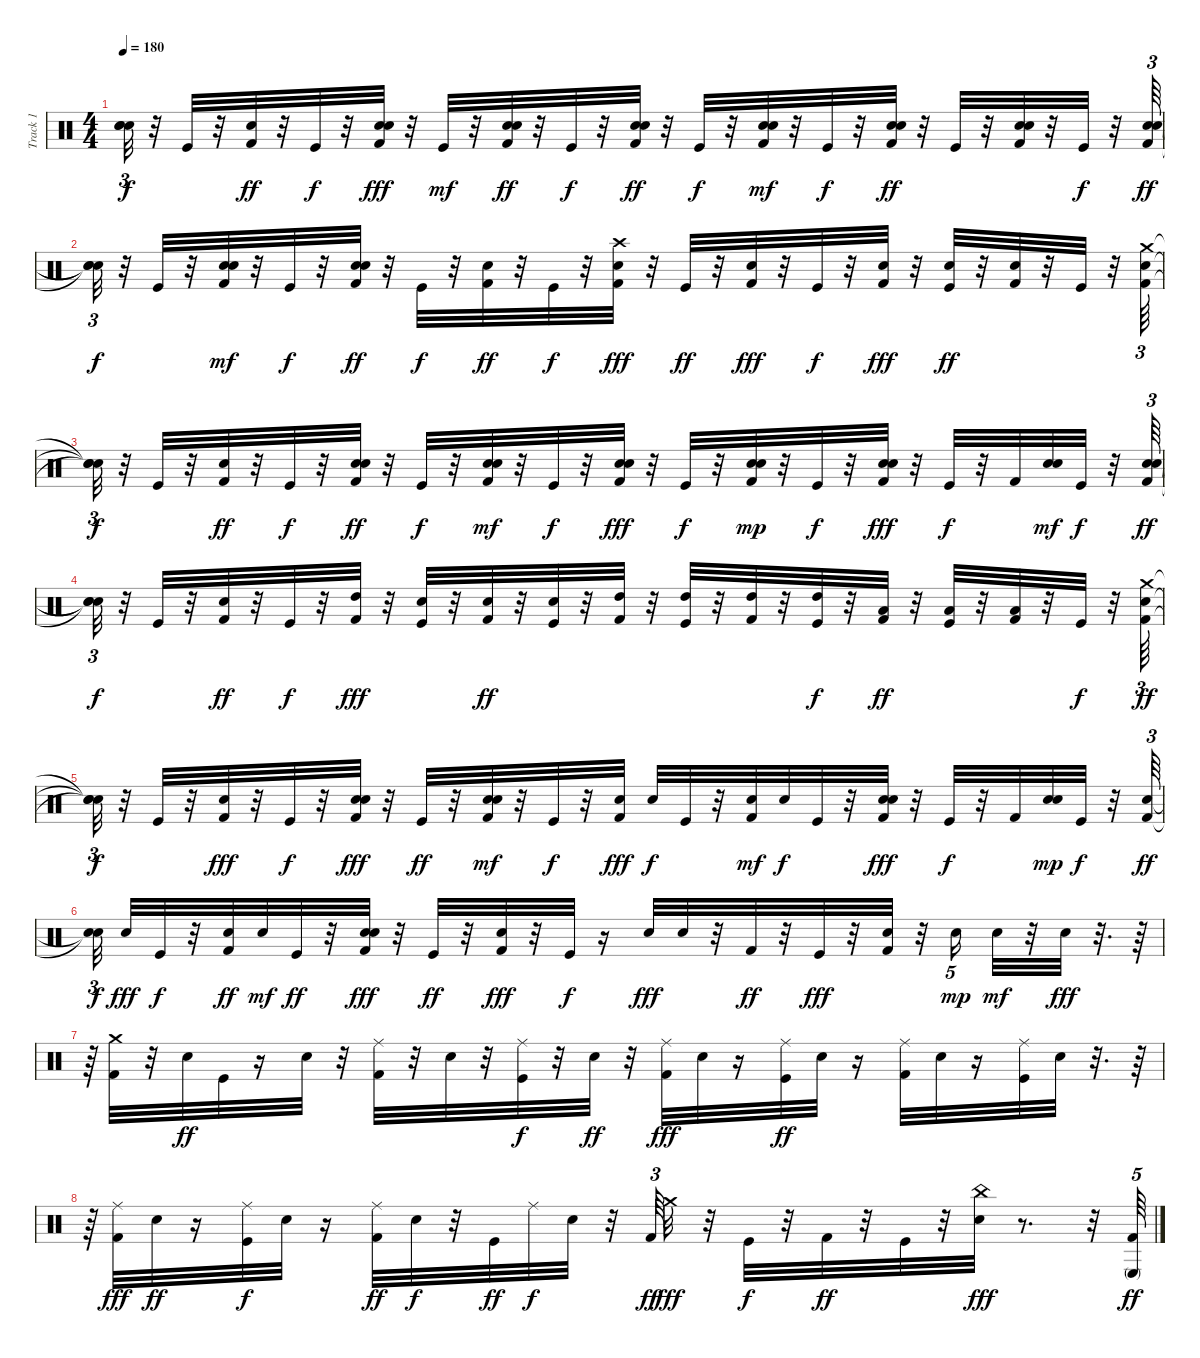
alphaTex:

\track ("Track 1" "Track 1") {mute instrument percussion}
\staff {score}
\articulation defaults
\ts (4 4)
\tempo 180
\clef neutral
\ks c
("Snare (hit)"{t} "Snare (hit)"{t} "Snare (hit)"{t}).32{tu (3 2) dy f} r.32 "Kick (hit)".32 r.32 ("Kick (hit) 2" "Snare (hit) 2").32{dy ff} r.32 "Kick (hit)".32{dy f} r.32 ("Snare (hit) 2" "Kick (hit) 2" "Snare (hit)").32{dy fff} r.32 "Kick (hit)".32{dy mf} r.32 ("Snare (hit)" "Kick (hit) 2" "Snare (hit) 2").32{dy ff} r.32 "Kick (hit)".32{dy f} r.32 ("Snare (hit)" "Snare (hit) 2" "Kick (hit) 2").32{dy ff} r.32 "Kick (hit)".32{dy f} r.32 ("Snare (hit)" "Kick (hit) 2" "Snare (hit) 2").32{dy mf} r.32 "Kick (hit)".32{dy f} r.32 ("Kick (hit) 2" "Snare (hit)" "Snare (hit) 2").32{dy ff} r.32 "Kick (hit)".32 r.32 ("Snare (hit)" "Kick (hit) 2" "Snare (hit) 2").32 r.32 "Kick (hit)".32{dy f} r.32 ("Snare (hit)" "Kick (hit) 2" "Snare (hit) 2").64{tu (3 2) dy ff} |
("Snare (hit)"{t} "Snare (hit)"{t} "Snare (hit)"{t}).32{tu (3 2) dy f} r.32 "Kick (hit)".32 r.32 ("Kick (hit) 2" "Snare (hit)" "Snare (hit) 2").32{dy mf} r.32 "Kick (hit)".32{dy f} r.32 ("Kick (hit) 2" "Snare (hit)" "Snare (hit) 2").32{dy ff} r.32 "Kick (hit)".32{dy f} r.32 ("Kick (hit) 2" "Snare (hit) 2").32{dy ff} r.32 "Kick (hit)".32{dy f} r.32 ("Crash high (hit)" "Snare (hit) 2" "Kick (hit) 2").32{dy fff} r.32 "Kick (hit)".32{dy ff} r.32 ("Kick (hit) 2" "Snare (hit) 2").32{dy fff} r.32 "Kick (hit)".32{dy f} r.32 ("Kick (hit) 2" "Snare (hit) 2").32{dy fff} r.32 ("Kick (hit)" "Snare (hit) 2").32{dy ff} r.32 ("Snare (hit) 2" "Kick (hit) 2").32 r.32 "Kick (hit)".32 r.32 ("Crash medium (hit)" "Snare (hit) 2" "Kick (hit) 2").64{tu (3 2)} |
("Snare (hit)"{t} "Snare (hit)"{t} "Snare (hit)"{t}).32{tu (3 2) dy f} r.32 "Kick (hit)".32 r.32 ("Snare (hit) 2" "Kick (hit) 2").32{dy ff} r.32 "Kick (hit)".32{dy f} r.32 ("Snare (hit) 2" "Snare (hit)" "Kick (hit) 2").32{dy ff} r.32 "Kick (hit)".32{dy f} r.32 ("Snare (hit)" "Snare (hit) 2" "Kick (hit) 2").32{dy mf} r.32 "Kick (hit)".32{dy f} r.32 ("Kick (hit) 2" "Snare (hit) 2" "Snare (hit)").32{dy fff} r.32 "Kick (hit)".32{dy f} r.32 ("Kick (hit) 2" "Snare (hit) 2" "Snare (hit)").32{dy mp} r.32 "Kick (hit)".32{dy f} r.32 ("Kick (hit) 2" "Snare (hit) 2" "Snare (hit)").32{dy fff} r.32 "Kick (hit)".32{dy f} r.32 "Kick (hit) 2".32 ("Snare (hit) 2" "Snare (hit)").32{dy mf} "Kick (hit)".32{dy f} r.32 ("Snare (hit) 2" "Snare (hit)" "Kick (hit) 2").64{tu (3 2) dy ff} |
("Snare (hit)"{t} "Snare (hit)"{t} "Snare (hit)"{t}).32{tu (3 2) dy f} r.32 "Kick (hit)".32 r.32 ("Snare (hit) 2" "Kick (hit) 2").32{dy ff} r.32 "Kick (hit)".32{dy f} r.32 ("Kick (hit) 2" "High Tom (hit)").32{dy fff} r.32 ("Kick (hit)" "Snare (hit) 2").32 r.32 ("Snare (hit) 2" "Kick (hit) 2").32{dy ff} r.32 ("Snare (hit) 2" "Kick (hit)").32 r.32 ("High Tom (hit)" "Kick (hit) 2").32 r.32 ("Kick (hit)" "High Tom (hit)").32 r.32 ("High Tom (hit)" "Kick (hit) 2").32 r.32 ("Kick (hit)" "High Tom (hit)").32{dy f} r.32 ("Low Tom (hit)" "Kick (hit) 2").32{dy ff} r.32 ("Low Tom (hit)" "Kick (hit)").32 r.32 ("Low Tom (hit)" "Kick (hit) 2").32 r.32 "Kick (hit)".32{dy f} r.32 ("Crash medium (hit)" "Snare (hit) 2" "Kick (hit) 2").64{tu (3 2) dy ff} |
("Snare (hit)"{t} "Snare (hit)"{t} "Snare (hit)"{t}).32{tu (3 2) dy f} r.32 "Kick (hit)".32 r.32 ("Snare (hit) 2" "Kick (hit) 2").32{dy fff} r.32 "Kick (hit)".32{dy f} r.32 ("Kick (hit) 2" "Snare (hit) 2" "Snare (hit)").32{dy fff} r.32 "Kick (hit)".32{dy ff} r.32 ("Snare (hit)" "Kick (hit) 2" "Snare (hit) 2").32{dy mf} r.32 "Kick (hit)".32{dy f} r.32 ("Kick (hit) 2" "Snare (hit)").32{dy fff} "Snare (hit) 2".32{dy f} "Kick (hit)".32 r.32 ("Kick (hit) 2" "Snare (hit)").32{dy mf} "Snare (hit) 2".32{dy f} "Kick (hit)".32 r.32 ("Kick (hit) 2" "Snare (hit) 2" "Snare (hit)").32{dy fff} r.32 "Kick (hit)".32{dy f} r.32 "Kick (hit) 2".32 ("Snare (hit) 2" "Snare (hit)").32{dy mp} "Kick (hit)".32{dy f} r.32 ("Kick (hit) 2" "Snare (hit) 2").64{tu (3 2) dy ff} |
("Snare (hit)"{t} "Snare (hit)"{t}).32{tu (3 2) dy f beam splitsecondary} "Snare (hit)".32{dy fff} "Kick (hit)".32{dy f} r.32 ("Kick (hit) 2" "Snare (hit) 2").32{dy ff} "Snare (hit)".32{dy mf} "Kick (hit)".32{dy ff} r.32 ("Snare (hit) 2" "Kick (hit) 2" "Snare (hit)").32{dy fff} r.32 "Kick (hit)".32{dy ff} r.32 ("Snare (hit) 2" "Kick (hit) 2").32{dy fff} r.32 "Kick (hit)".32{dy f} r.16 "Snare (hit) 2".32{dy fff} "Snare (hit) 2".32 r.32 "Kick (hit) 2".32{dy ff} r.32 "Kick (hit)".32{dy fff} r.32 ("Kick (hit) 2" "Snare (hit)").32 r.32 "Snare (hit) 2".16{tu (5 4) dy mp} "Snare (hit) 2".32{dy mf} r.32 "Snare (hit) 2".32{dy fff} r.32{d} r.64 |
r.64 ("Crash medium (hit)" "Kick (hit) 2").32 r.32 "Snare (hit) 2".32{dy ff} "Kick (hit)".32 r.16 "Snare (hit) 2".32 r.32 ("Ride (middle)" "Kick (hit) 2").32 r.32 "Snare (hit) 2".32 r.32 ("Ride (middle)" "Kick (hit)").32{dy f} r.32 "Snare (hit) 2".32{dy ff} r.32 ("Kick (hit) 2" "Ride (middle)").32{dy fff} "Snare (hit) 2".32 r.16 ("Kick (hit)" "Ride (middle)").32{dy ff} "Snare (hit) 2".32 r.16 ("Ride (middle)" "Kick (hit) 2").32 "Snare (hit) 2".32 r.16 ("Ride (middle)" "Kick (hit)").32 "Snare (hit) 2".32 r.32{d} r.64 |
r.64 ("Kick (hit) 2" "Ride (middle)").32{dy fff} "Snare (hit) 2".32{dy ff} r.16 ("Ride (middle)" "Kick (hit)").32{dy f} "Snare (hit) 2".32 r.16 ("Ride (middle)" "Kick (hit) 2").32{dy ff} "Snare (hit) 2".32{dy f} r.32 "Kick (hit)".32{dy ff} "Ride (middle)".32{dy f} "Snare (hit) 2".32 r.32 "Kick (hit) 2".64{tu (3 2) dy ff} "Crash medium (hit)".32{dy fff} r.32 "Kick (hit)".32{dy f} r.32 "Kick (hit) 2".32{dy ff} r.32 "Kick (hit)".32 r.32 ("China (hit)" "Snare (hit) 2").32{dy fff} r.8{d} r.32 ("Kick (hit) 2" "Conga low (mute)").64{tu (5 4) dy ff}
